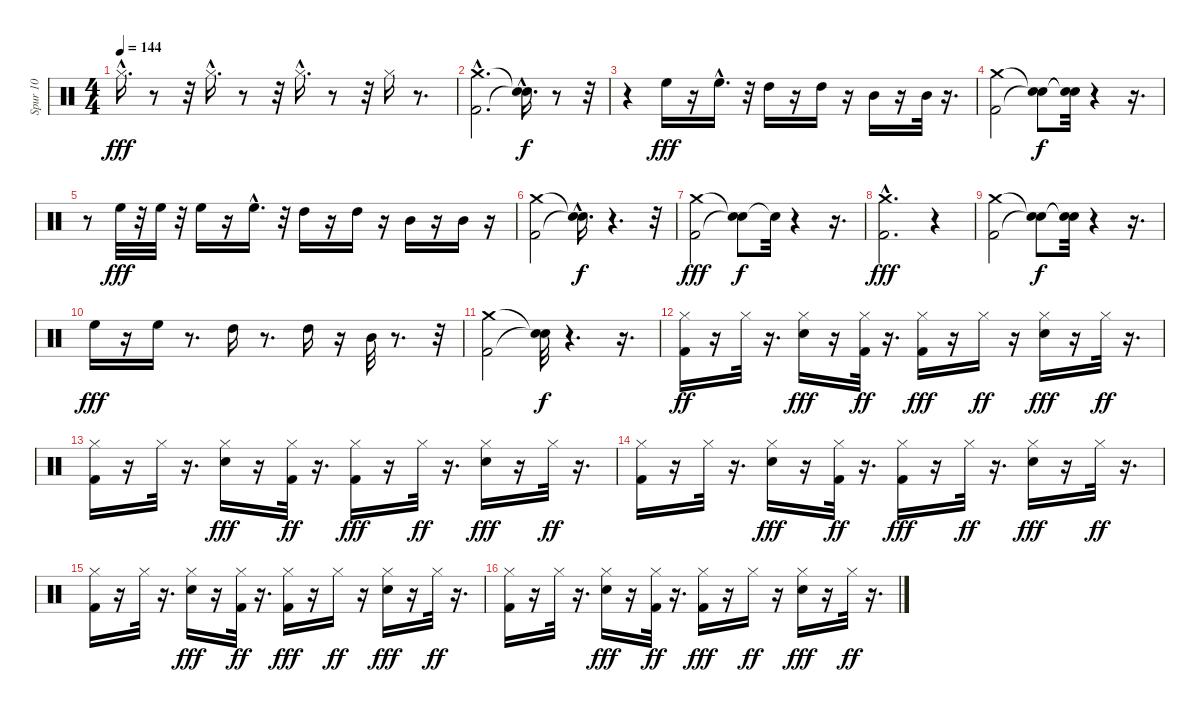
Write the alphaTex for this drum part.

\track ("Spur 10" "Spur 10") {instrument percussion}
\staff {score}
\articulation defaults
\ts (4 4)
\tempo 144
\clef neutral
\ks c "Hi-Hat (closed)"{hac}.16{d dy fff}
r.8 r.32 "Hi-Hat (closed)"{hac}.16{d} r.8 r.32 "Hi-Hat (closed)"{hac}.16{d} r.8 r.32 "Hi-Hat (closed)".16 r.8{d} |
("Kick (hit) 2"{hac} "Crash medium (hit)"{hac}).2{d} ("Snare (hit)"{hac t} "Snare (hit)"{hac t}).16{d dy f} r.8 r.32 |
r.4 "High Floor Tom (hit)".16{dy fff} r.16 "High Floor Tom (hit)"{hac}.16{d} r.32 "High Tom (hit)".16 r.16 "High Tom (hit)".16 r.16 "Mid Tom (hit)".16 r.16 "Mid Tom (hit)".32 r.16{d} |
("Crash medium (hit)" "Kick (hit) 2").2 ("Snare (hit)"{t} "Snare (hit)"{t}).8{dy f} ("Snare (hit)"{t} "Snare (hit)"{t}).32 r.4 r.16{d} |
r.8 "High Floor Tom (hit)".32{dy fff} r.32 "High Floor Tom (hit)".32 r.32 "High Floor Tom (hit)".16 r.16 "High Floor Tom (hit)"{hac}.16{d} r.32 "High Tom (hit)".16 r.16 "High Tom (hit)".16 r.16 "Mid Tom (hit)".16 r.16 "Mid Tom (hit)".16 r.16 |
("Kick (hit) 2" "Crash medium (hit)").2 ("Snare (hit)"{t} "Snare (hit)"{hac t}).16{d dy f} r.4{d} r.32 |
("Kick (hit) 2" "Crash medium (hit)").2{dy fff} ("Snare (hit)"{t} "Snare (hit)"{t}).8{dy f} "Snare (hit)"{t}.32 r.4 r.16{d} |
("Crash medium (hit)"{hac} "Kick (hit) 2"{hac}).2{d dy fff} r.4 |
("Crash medium (hit)" "Kick (hit) 2").2 ("Snare (hit)"{t} "Snare (hit)"{t}).8{dy f} ("Snare (hit)"{t} "Snare (hit)"{t}).32 r.4 r.16{d} |
"High Floor Tom (hit)".16{dy fff} r.16 "High Floor Tom (hit)".16 r.8{d} "High Tom (hit)".16 r.8{d} "High Tom (hit)".16 r.16 "Mid Tom (hit)".32 r.8{d} r.32 |
("Crash medium (hit)" "Kick (hit) 2").2 ("Snare (hit)"{t} "Snare (hit)"{t}).32{dy f} r.4{d} r.16{d} |
("Kick (hit) 2" "Hi-Hat (closed)").16{dy ff} r.16 "Hi-Hat (closed)".32 r.16{d} ("Snare (hit) 2" "Hi-Hat (closed)").16{dy fff} r.16 ("Kick (hit) 2" "Hi-Hat (closed)").32{dy ff} r.16{d} ("Kick (hit) 2" "Hi-Hat (closed)").16{dy fff} r.16 "Hi-Hat (closed)".16{dy ff} r.16 ("Snare (hit) 2" "Hi-Hat (closed)").16{dy fff} r.16 "Hi-Hat (closed)".32{dy ff} r.16{d} |
("Kick (hit) 2" "Hi-Hat (closed)").16 r.16 "Hi-Hat (closed)".32 r.16{d} ("Snare (hit) 2" "Hi-Hat (closed)").16{dy fff} r.16 ("Kick (hit) 2" "Hi-Hat (closed)").32{dy ff} r.16{d} ("Kick (hit) 2" "Hi-Hat (closed)").16{dy fff} r.16 "Hi-Hat (closed)".32{dy ff} r.16{d} ("Snare (hit) 2" "Hi-Hat (closed)").16{dy fff} r.16 "Hi-Hat (closed)".32{dy ff} r.16{d} |
("Kick (hit) 2" "Hi-Hat (closed)").16 r.16 "Hi-Hat (closed)".32 r.16{d} ("Snare (hit) 2" "Hi-Hat (closed)").16{dy fff} r.16 ("Kick (hit) 2" "Hi-Hat (closed)").32{dy ff} r.16{d} ("Kick (hit) 2" "Hi-Hat (closed)").16{dy fff} r.16 "Hi-Hat (closed)".32{dy ff} r.16{d} ("Snare (hit) 2" "Hi-Hat (closed)").16{dy fff} r.16 "Hi-Hat (closed)".32{dy ff} r.16{d} |
("Kick (hit) 2" "Hi-Hat (closed)").16 r.16 "Hi-Hat (closed)".32 r.16{d} ("Snare (hit) 2" "Hi-Hat (closed)").16{dy fff} r.16 ("Kick (hit) 2" "Hi-Hat (closed)").32{dy ff} r.16{d} ("Kick (hit) 2" "Hi-Hat (closed)").16{dy fff} r.16 "Hi-Hat (closed)".16{dy ff} r.16 ("Snare (hit) 2" "Hi-Hat (closed)").16{dy fff} r.16 "Hi-Hat (closed)".32{dy ff} r.16{d} |
("Kick (hit) 2" "Hi-Hat (closed)").16 r.16 "Hi-Hat (closed)".32 r.16{d} ("Snare (hit) 2" "Hi-Hat (closed)").16{dy fff} r.16 ("Kick (hit) 2" "Hi-Hat (closed)").32{dy ff} r.16{d} ("Kick (hit) 2" "Hi-Hat (closed)").16{dy fff} r.16 "Hi-Hat (closed)".16{dy ff} r.16 ("Snare (hit) 2" "Hi-Hat (closed)").16{dy fff} r.16 "Hi-Hat (closed)".32{dy ff} r.16{d}
